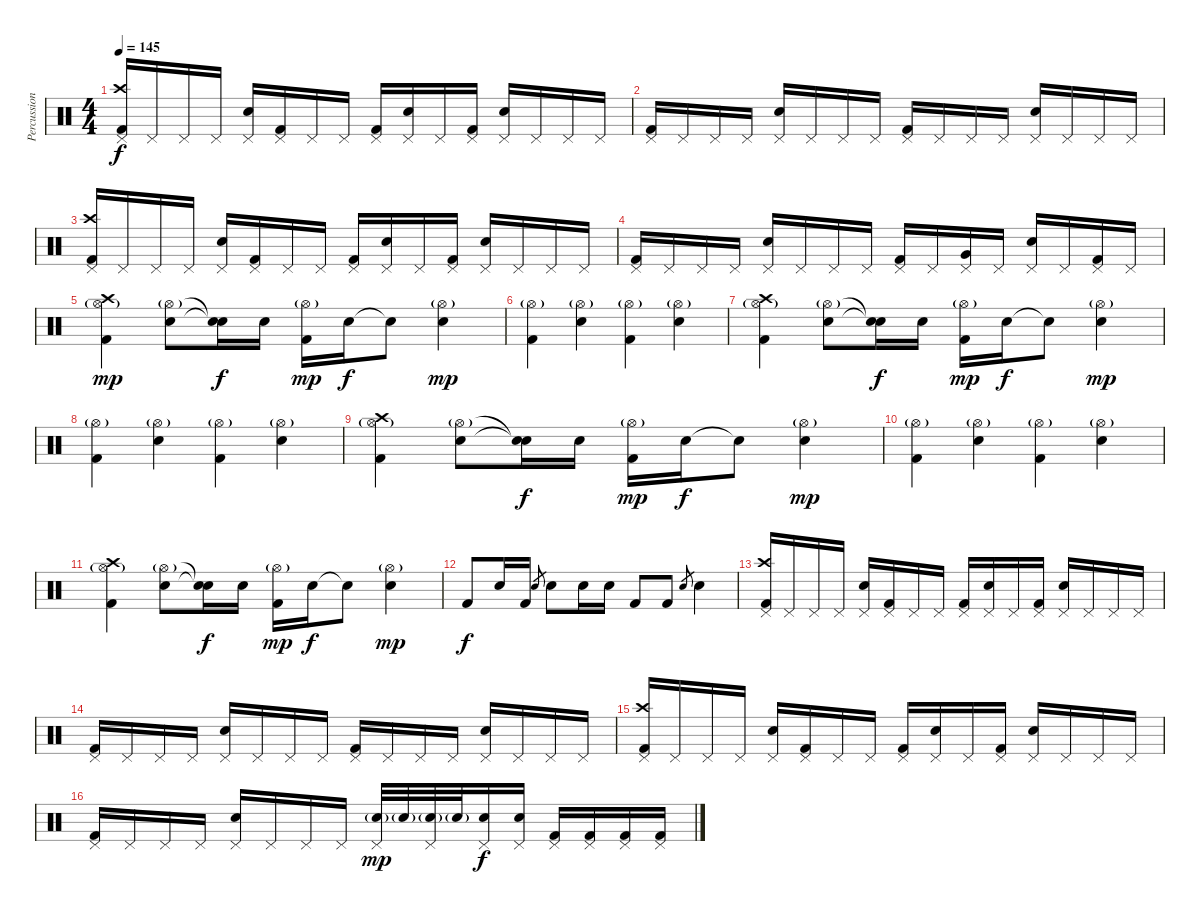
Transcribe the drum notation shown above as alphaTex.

\track ("Percussion" "Percussion") {instrument percussion}
\staff {score}
\articulation defaults
\ts (4 4)
\tempo 145
\clef neutral
\ks c
("Pedal Hi-Hat (hit)" "Crash high (hit)" "Kick (hit) 2").16{dy f} "Pedal Hi-Hat (hit)".16 "Pedal Hi-Hat (hit)".16 "Pedal Hi-Hat (hit)".16 ("Pedal Hi-Hat (hit)" "Electric Snare (hit)").16 ("Pedal Hi-Hat (hit)" "Kick (hit) 2").16 "Pedal Hi-Hat (hit)".16 "Pedal Hi-Hat (hit)".16 ("Pedal Hi-Hat (hit)" "Kick (hit) 2").16 ("Pedal Hi-Hat (hit)" "Electric Snare (hit)").16 "Pedal Hi-Hat (hit)".16 ("Pedal Hi-Hat (hit)" "Kick (hit) 2").16 ("Pedal Hi-Hat (hit)" "Electric Snare (hit)").16 "Pedal Hi-Hat (hit)".16 "Pedal Hi-Hat (hit)".16 "Pedal Hi-Hat (hit)".16 |
("Pedal Hi-Hat (hit)" "Kick (hit) 2").16 "Pedal Hi-Hat (hit)".16 "Pedal Hi-Hat (hit)".16 "Pedal Hi-Hat (hit)".16 ("Pedal Hi-Hat (hit)" "Electric Snare (hit)").16 "Pedal Hi-Hat (hit)".16 "Pedal Hi-Hat (hit)".16 "Pedal Hi-Hat (hit)".16 ("Pedal Hi-Hat (hit)" "Kick (hit) 2").16 "Pedal Hi-Hat (hit)".16 "Pedal Hi-Hat (hit)".16 "Pedal Hi-Hat (hit)".16 ("Pedal Hi-Hat (hit)" "Electric Snare (hit)").16 "Pedal Hi-Hat (hit)".16 "Pedal Hi-Hat (hit)".16 "Pedal Hi-Hat (hit)".16 |
("Pedal Hi-Hat (hit)" "Crash high (hit)" "Kick (hit) 2").16 "Pedal Hi-Hat (hit)".16 "Pedal Hi-Hat (hit)".16 "Pedal Hi-Hat (hit)".16 ("Pedal Hi-Hat (hit)" "Electric Snare (hit)").16 ("Pedal Hi-Hat (hit)" "Kick (hit) 2").16 "Pedal Hi-Hat (hit)".16 "Pedal Hi-Hat (hit)".16 ("Pedal Hi-Hat (hit)" "Kick (hit) 2").16 ("Pedal Hi-Hat (hit)" "Electric Snare (hit)").16 "Pedal Hi-Hat (hit)".16 ("Pedal Hi-Hat (hit)" "Kick (hit) 2").16 ("Pedal Hi-Hat (hit)" "Electric Snare (hit)").16 "Pedal Hi-Hat (hit)".16 "Pedal Hi-Hat (hit)".16 "Pedal Hi-Hat (hit)".16 |
("Pedal Hi-Hat (hit)" "Kick (hit) 2").16 "Pedal Hi-Hat (hit)".16 "Pedal Hi-Hat (hit)".16 "Pedal Hi-Hat (hit)".16 ("Pedal Hi-Hat (hit)" "Electric Snare (hit)").16 "Pedal Hi-Hat (hit)".16 "Pedal Hi-Hat (hit)".16 "Pedal Hi-Hat (hit)".16 ("Pedal Hi-Hat (hit)" "Kick (hit) 2").16 "Pedal Hi-Hat (hit)".16 ("Pedal Hi-Hat (hit)" "Very Low Tom (hit)").16 "Pedal Hi-Hat (hit)".16 ("Pedal Hi-Hat (hit)" "Electric Snare (hit)").16 "Pedal Hi-Hat (hit)".16 ("Pedal Hi-Hat (hit)" "Kick (hit) 2").16 "Pedal Hi-Hat (hit)".16 |
("Hi-Hat (open)"{g} "Crash high (hit)" "Kick (hit) 2").4{dy mp} ("Hi-Hat (open)"{g} "Electric Snare (hit)").8 ("Snare (hit)"{t} "Snare (hit)"{t}).16{dy f} "Electric Snare (hit)".16 ("Hi-Hat (open)"{g} "Kick (hit) 2").16{dy mp} "Electric Snare (hit)".16{dy f} "Snare (hit)"{t}.8 ("Hi-Hat (open)"{g} "Electric Snare (hit)").4{dy mp} |
("Hi-Hat (open)"{g} "Kick (hit) 2").4 ("Hi-Hat (open)"{g} "Electric Snare (hit)").4 ("Hi-Hat (open)"{g} "Kick (hit) 2").4 ("Hi-Hat (open)"{g} "Electric Snare (hit)").4 |
("Hi-Hat (open)"{g} "Crash high (hit)" "Kick (hit) 2").4 ("Hi-Hat (open)"{g} "Electric Snare (hit)").8 ("Snare (hit)"{t} "Snare (hit)"{t}).16{dy f} "Electric Snare (hit)".16 ("Hi-Hat (open)"{g} "Kick (hit) 2").16{dy mp} "Electric Snare (hit)".16{dy f} "Snare (hit)"{t}.8 ("Hi-Hat (open)"{g} "Electric Snare (hit)").4{dy mp} |
("Hi-Hat (open)"{g} "Kick (hit) 2").4 ("Hi-Hat (open)"{g} "Electric Snare (hit)").4 ("Hi-Hat (open)"{g} "Kick (hit) 2").4 ("Hi-Hat (open)"{g} "Electric Snare (hit)").4 |
("Hi-Hat (open)"{g} "Crash high (hit)" "Kick (hit) 2").4 ("Hi-Hat (open)"{g} "Electric Snare (hit)").8 ("Snare (hit)"{t} "Snare (hit)"{t}).16{dy f} "Electric Snare (hit)".16 ("Hi-Hat (open)"{g} "Kick (hit) 2").16{dy mp} "Electric Snare (hit)".16{dy f} "Snare (hit)"{t}.8 ("Hi-Hat (open)"{g} "Electric Snare (hit)").4{dy mp} |
("Hi-Hat (open)"{g} "Kick (hit) 2").4 ("Hi-Hat (open)"{g} "Electric Snare (hit)").4 ("Hi-Hat (open)"{g} "Kick (hit) 2").4 ("Hi-Hat (open)"{g} "Electric Snare (hit)").4 |
("Hi-Hat (open)"{g} "Crash high (hit)" "Kick (hit) 2").4 ("Hi-Hat (open)"{g} "Electric Snare (hit)").8 ("Snare (hit)"{t} "Snare (hit)"{t}).16{dy f} "Electric Snare (hit)".16 ("Hi-Hat (open)"{g} "Kick (hit) 2").16{dy mp} "Electric Snare (hit)".16{dy f} "Snare (hit)"{t}.8 ("Hi-Hat (open)"{g} "Electric Snare (hit)").4{dy mp} |
"Kick (hit) 2".8{dy f} "Electric Snare (hit)".16 "Kick (hit) 2".16 "Electric Snare (hit)".8{gr} "Electric Snare (hit)".8 "Electric Snare (hit)".16 "Electric Snare (hit)".16 "Kick (hit) 2".8 "Kick (hit) 2".8 "Electric Snare (hit)".8{gr} "Electric Snare (hit)".4 |
("Pedal Hi-Hat (hit)" "Crash high (hit)" "Kick (hit) 2").16 "Pedal Hi-Hat (hit)".16 "Pedal Hi-Hat (hit)".16 "Pedal Hi-Hat (hit)".16 ("Pedal Hi-Hat (hit)" "Electric Snare (hit)").16 ("Pedal Hi-Hat (hit)" "Kick (hit) 2").16 "Pedal Hi-Hat (hit)".16 "Pedal Hi-Hat (hit)".16 ("Pedal Hi-Hat (hit)" "Kick (hit) 2").16 ("Pedal Hi-Hat (hit)" "Electric Snare (hit)").16 "Pedal Hi-Hat (hit)".16 ("Pedal Hi-Hat (hit)" "Kick (hit) 2").16 ("Pedal Hi-Hat (hit)" "Electric Snare (hit)").16 "Pedal Hi-Hat (hit)".16 "Pedal Hi-Hat (hit)".16 "Pedal Hi-Hat (hit)".16 |
("Pedal Hi-Hat (hit)" "Kick (hit) 2").16 "Pedal Hi-Hat (hit)".16 "Pedal Hi-Hat (hit)".16 "Pedal Hi-Hat (hit)".16 ("Pedal Hi-Hat (hit)" "Electric Snare (hit)").16 "Pedal Hi-Hat (hit)".16 "Pedal Hi-Hat (hit)".16 "Pedal Hi-Hat (hit)".16 ("Pedal Hi-Hat (hit)" "Kick (hit) 2").16 "Pedal Hi-Hat (hit)".16 "Pedal Hi-Hat (hit)".16 "Pedal Hi-Hat (hit)".16 ("Pedal Hi-Hat (hit)" "Electric Snare (hit)").16 "Pedal Hi-Hat (hit)".16 "Pedal Hi-Hat (hit)".16 "Pedal Hi-Hat (hit)".16 |
("Pedal Hi-Hat (hit)" "Crash high (hit)" "Kick (hit) 2").16 "Pedal Hi-Hat (hit)".16 "Pedal Hi-Hat (hit)".16 "Pedal Hi-Hat (hit)".16 ("Pedal Hi-Hat (hit)" "Electric Snare (hit)").16 ("Pedal Hi-Hat (hit)" "Kick (hit) 2").16 "Pedal Hi-Hat (hit)".16 "Pedal Hi-Hat (hit)".16 ("Pedal Hi-Hat (hit)" "Kick (hit) 2").16 ("Pedal Hi-Hat (hit)" "Electric Snare (hit)").16 "Pedal Hi-Hat (hit)".16 ("Pedal Hi-Hat (hit)" "Kick (hit) 2").16 ("Pedal Hi-Hat (hit)" "Electric Snare (hit)").16 "Pedal Hi-Hat (hit)".16 "Pedal Hi-Hat (hit)".16 "Pedal Hi-Hat (hit)".16 |
("Pedal Hi-Hat (hit)" "Kick (hit) 2").16 "Pedal Hi-Hat (hit)".16 "Pedal Hi-Hat (hit)".16 "Pedal Hi-Hat (hit)".16 ("Pedal Hi-Hat (hit)" "Electric Snare (hit)").16 "Pedal Hi-Hat (hit)".16 "Pedal Hi-Hat (hit)".16 "Pedal Hi-Hat (hit)".16 ("Pedal Hi-Hat (hit)" "Electric Snare (hit)"{g}).32{dy mp} "Electric Snare (hit)"{g}.32 ("Pedal Hi-Hat (hit)" "Electric Snare (hit)"{g}).32 "Electric Snare (hit)"{g}.32 ("Pedal Hi-Hat (hit)" "Electric Snare (hit)").16{dy f} ("Pedal Hi-Hat (hit)" "Electric Snare (hit)").16 ("Pedal Hi-Hat (hit)" "Kick (hit) 2").16 ("Pedal Hi-Hat (hit)" "Kick (hit) 2").16 ("Pedal Hi-Hat (hit)" "Kick (hit) 2").16 ("Pedal Hi-Hat (hit)" "Kick (hit) 2").16
